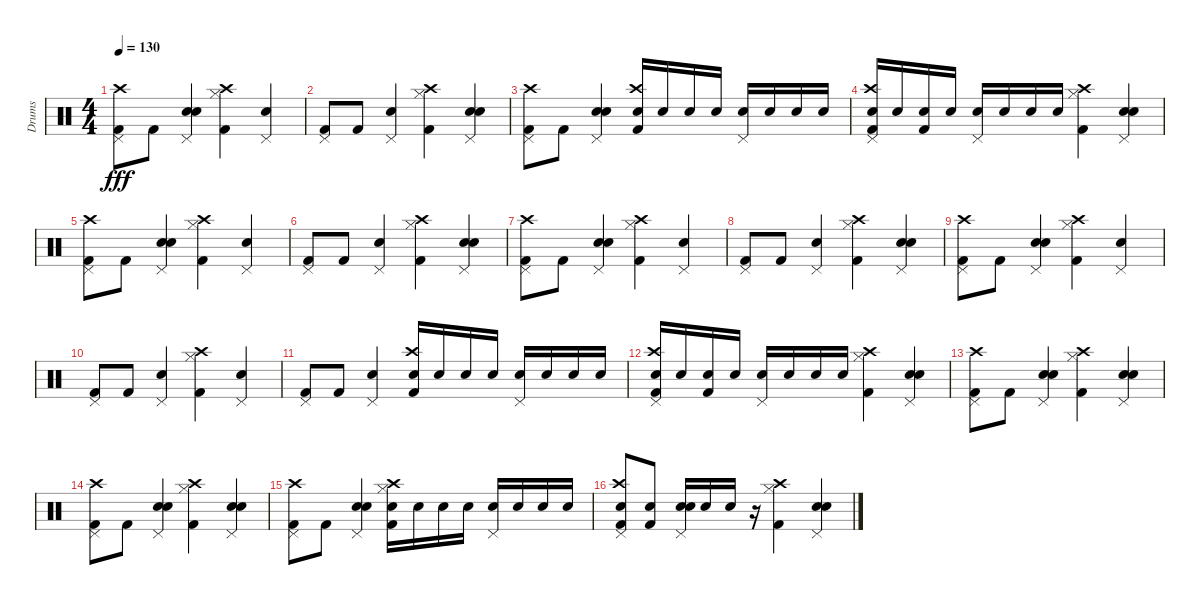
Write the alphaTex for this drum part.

\track ("Drums" "Drums") {instrument percussion}
\staff {score}
\articulation defaults
\ts (4 4)
\tempo 130
\clef neutral
\ks c
("Pedal Hi-Hat (hit)" "Kick (hit) 2" "Crash high (hit)").8{dy fff} "Kick (hit) 2".8 ("Electric Snare (hit)" "Pedal Hi-Hat (hit)" "Snare (hit) 2").4 ("Hi-Hat (closed)" "Kick (hit) 2" "Crash high (hit)").4 ("Electric Snare (hit)" "Pedal Hi-Hat (hit)").4 |
("Pedal Hi-Hat (hit)" "Kick (hit) 2").8 "Kick (hit) 2".8 ("Electric Snare (hit)" "Pedal Hi-Hat (hit)").4 ("Hi-Hat (closed)" "Kick (hit) 2" "Crash high (hit)").4 ("Electric Snare (hit)" "Pedal Hi-Hat (hit)" "Snare (hit) 2").4 |
("Pedal Hi-Hat (hit)" "Kick (hit) 2" "Crash high (hit)").8 "Kick (hit) 2".8 ("Electric Snare (hit)" "Pedal Hi-Hat (hit)" "Snare (hit) 2").4 ("Kick (hit) 2" "Crash high (hit)" "Snare (hit) 2").16 "Snare (hit) 2".16 "Snare (hit) 2".16 "Snare (hit) 2".16 ("Pedal Hi-Hat (hit)" "Electric Snare (hit)").16 "Electric Snare (hit)".16 "Electric Snare (hit)".16 "Electric Snare (hit)".16 |
("Pedal Hi-Hat (hit)" "Kick (hit) 2" "Crash high (hit)" "Electric Snare (hit)").16 "Electric Snare (hit)".16 ("Kick (hit) 2" "Electric Snare (hit)").16 "Electric Snare (hit)".16 ("Pedal Hi-Hat (hit)" "Snare (hit) 2").16 "Snare (hit) 2".16 "Snare (hit) 2".16 "Snare (hit) 2".16 ("Hi-Hat (closed)" "Kick (hit) 2" "Crash high (hit)").4 ("Electric Snare (hit)" "Pedal Hi-Hat (hit)" "Snare (hit) 2").4 |
("Pedal Hi-Hat (hit)" "Kick (hit) 2" "Crash high (hit)").8 "Kick (hit) 2".8 ("Electric Snare (hit)" "Pedal Hi-Hat (hit)" "Snare (hit) 2").4 ("Hi-Hat (closed)" "Kick (hit) 2" "Crash high (hit)").4 ("Electric Snare (hit)" "Pedal Hi-Hat (hit)").4 |
("Pedal Hi-Hat (hit)" "Kick (hit) 2").8 "Kick (hit) 2".8 ("Electric Snare (hit)" "Pedal Hi-Hat (hit)").4 ("Hi-Hat (closed)" "Kick (hit) 2" "Crash high (hit)").4 ("Electric Snare (hit)" "Pedal Hi-Hat (hit)" "Snare (hit) 2").4 |
("Pedal Hi-Hat (hit)" "Kick (hit) 2" "Crash high (hit)").8 "Kick (hit) 2".8 ("Electric Snare (hit)" "Pedal Hi-Hat (hit)" "Snare (hit) 2").4 ("Hi-Hat (closed)" "Kick (hit) 2" "Crash high (hit)").4 ("Electric Snare (hit)" "Pedal Hi-Hat (hit)").4 |
("Pedal Hi-Hat (hit)" "Kick (hit) 2").8 "Kick (hit) 2".8 ("Electric Snare (hit)" "Pedal Hi-Hat (hit)").4 ("Hi-Hat (closed)" "Kick (hit) 2" "Crash high (hit)").4 ("Electric Snare (hit)" "Pedal Hi-Hat (hit)" "Snare (hit) 2").4 |
("Pedal Hi-Hat (hit)" "Kick (hit) 2" "Crash high (hit)").8 "Kick (hit) 2".8 ("Electric Snare (hit)" "Pedal Hi-Hat (hit)" "Snare (hit) 2").4 ("Hi-Hat (closed)" "Kick (hit) 2" "Crash high (hit)").4 ("Electric Snare (hit)" "Pedal Hi-Hat (hit)").4 |
("Pedal Hi-Hat (hit)" "Kick (hit) 2").8 "Kick (hit) 2".8 ("Electric Snare (hit)" "Pedal Hi-Hat (hit)").4 ("Hi-Hat (closed)" "Kick (hit) 2" "Crash high (hit)").4 ("Electric Snare (hit)" "Pedal Hi-Hat (hit)").4 |
("Pedal Hi-Hat (hit)" "Kick (hit) 2").8 "Kick (hit) 2".8 ("Electric Snare (hit)" "Pedal Hi-Hat (hit)").4 ("Kick (hit) 2" "Crash high (hit)" "Snare (hit) 2").16 "Snare (hit) 2".16 "Snare (hit) 2".16 "Snare (hit) 2".16 ("Pedal Hi-Hat (hit)" "Electric Snare (hit)").16 "Electric Snare (hit)".16 "Electric Snare (hit)".16 "Electric Snare (hit)".16 |
("Pedal Hi-Hat (hit)" "Kick (hit) 2" "Crash high (hit)" "Electric Snare (hit)").16 "Electric Snare (hit)".16 ("Kick (hit) 2" "Electric Snare (hit)").16 "Electric Snare (hit)".16 ("Pedal Hi-Hat (hit)" "Snare (hit) 2").16 "Snare (hit) 2".16 "Snare (hit) 2".16 "Snare (hit) 2".16 ("Hi-Hat (closed)" "Kick (hit) 2" "Crash high (hit)").4 ("Electric Snare (hit)" "Pedal Hi-Hat (hit)" "Snare (hit) 2").4 |
("Pedal Hi-Hat (hit)" "Kick (hit) 2" "Crash high (hit)").8 "Kick (hit) 2".8 ("Electric Snare (hit)" "Pedal Hi-Hat (hit)" "Snare (hit) 2").4 ("Hi-Hat (closed)" "Kick (hit) 2" "Crash high (hit)").4 ("Electric Snare (hit)" "Pedal Hi-Hat (hit)" "Snare (hit) 2").4 |
("Pedal Hi-Hat (hit)" "Kick (hit) 2" "Crash high (hit)").8 "Kick (hit) 2".8 ("Electric Snare (hit)" "Pedal Hi-Hat (hit)" "Snare (hit) 2").4 ("Hi-Hat (closed)" "Kick (hit) 2" "Crash high (hit)").4 ("Electric Snare (hit)" "Pedal Hi-Hat (hit)" "Snare (hit) 2").4 |
("Pedal Hi-Hat (hit)" "Kick (hit) 2" "Crash high (hit)").8 "Kick (hit) 2".8 ("Electric Snare (hit)" "Pedal Hi-Hat (hit)" "Snare (hit) 2").4 ("Hi-Hat (closed)" "Kick (hit) 2" "Crash high (hit)" "Electric Snare (hit)").16 "Electric Snare (hit)".16 "Electric Snare (hit)".16 "Electric Snare (hit)".16 ("Pedal Hi-Hat (hit)" "Snare (hit) 2").16 "Snare (hit) 2".16 "Snare (hit) 2".16 "Snare (hit) 2".16 |
("Pedal Hi-Hat (hit)" "Kick (hit) 2" "Crash high (hit)" "Snare (hit) 2").8 ("Kick (hit) 2" "Snare (hit) 2").8 ("Electric Snare (hit)" "Pedal Hi-Hat (hit)" "Snare (hit) 2").16 "Snare (hit) 2".16 "Snare (hit) 2".16 r.16 ("Hi-Hat (closed)" "Kick (hit) 2" "Crash high (hit)").4 ("Electric Snare (hit)" "Pedal Hi-Hat (hit)" "Snare (hit) 2").4
